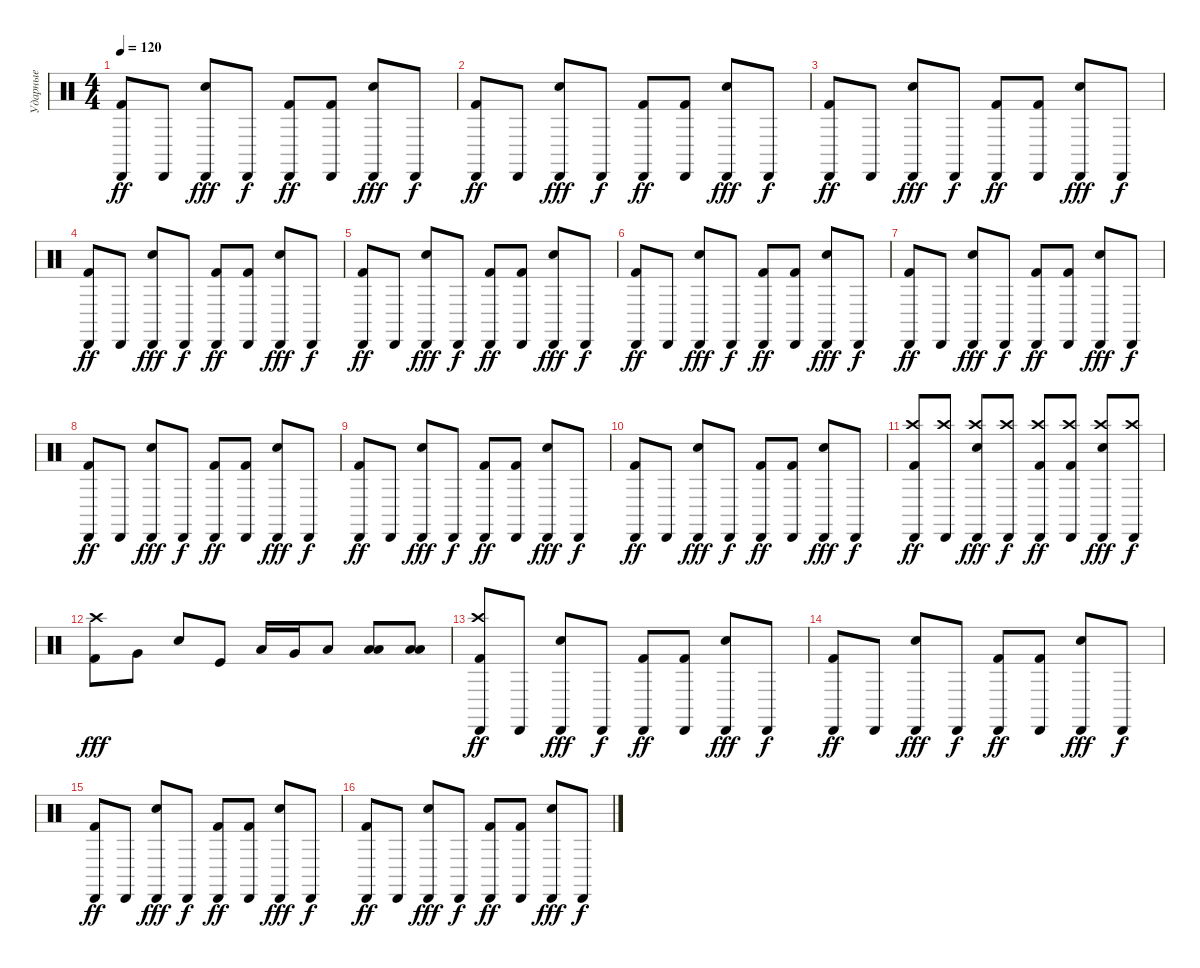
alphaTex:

\track ("Ударные" "Ударные") {instrument percussion}
\staff {score}
\articulation defaults
\ts (4 4)
\tempo 120
\clef neutral
\ks c
("Cabasa (hit)" "Kick (hit) 2").8{dy ff} "Cabasa (hit)".8 ("Snare (hit) 2" "Cabasa (hit)").8{dy fff} "Cabasa (hit)".8{dy f} ("Cabasa (hit)" "Kick (hit) 2").8{dy ff} ("Cabasa (hit)" "Kick (hit) 2").8 ("Snare (hit) 2" "Cabasa (hit)").8{dy fff} "Cabasa (hit)".8{dy f} |
("Cabasa (hit)" "Kick (hit) 2").8{dy ff} "Cabasa (hit)".8 ("Snare (hit) 2" "Cabasa (hit)").8{dy fff} "Cabasa (hit)".8{dy f} ("Cabasa (hit)" "Kick (hit) 2").8{dy ff} ("Cabasa (hit)" "Kick (hit) 2").8 ("Snare (hit) 2" "Cabasa (hit)").8{dy fff} "Cabasa (hit)".8{dy f} |
("Cabasa (hit)" "Kick (hit) 2").8{dy ff} "Cabasa (hit)".8 ("Snare (hit) 2" "Cabasa (hit)").8{dy fff} "Cabasa (hit)".8{dy f} ("Cabasa (hit)" "Kick (hit) 2").8{dy ff} ("Cabasa (hit)" "Kick (hit) 2").8 ("Snare (hit) 2" "Cabasa (hit)").8{dy fff} "Cabasa (hit)".8{dy f} |
("Cabasa (hit)" "Kick (hit) 2").8{dy ff} "Cabasa (hit)".8 ("Snare (hit) 2" "Cabasa (hit)").8{dy fff} "Cabasa (hit)".8{dy f} ("Cabasa (hit)" "Kick (hit) 2").8{dy ff} ("Cabasa (hit)" "Kick (hit) 2").8 ("Snare (hit) 2" "Cabasa (hit)").8{dy fff} "Cabasa (hit)".8{dy f} |
("Cabasa (hit)" "Kick (hit) 2").8{dy ff} "Cabasa (hit)".8 ("Snare (hit) 2" "Cabasa (hit)").8{dy fff} "Cabasa (hit)".8{dy f} ("Cabasa (hit)" "Kick (hit) 2").8{dy ff} ("Cabasa (hit)" "Kick (hit) 2").8 ("Snare (hit) 2" "Cabasa (hit)").8{dy fff} "Cabasa (hit)".8{dy f} |
("Cabasa (hit)" "Kick (hit) 2").8{dy ff} "Cabasa (hit)".8 ("Snare (hit) 2" "Cabasa (hit)").8{dy fff} "Cabasa (hit)".8{dy f} ("Cabasa (hit)" "Kick (hit) 2").8{dy ff} ("Cabasa (hit)" "Kick (hit) 2").8 ("Snare (hit) 2" "Cabasa (hit)").8{dy fff} "Cabasa (hit)".8{dy f} |
("Cabasa (hit)" "Kick (hit) 2").8{dy ff} "Cabasa (hit)".8 ("Snare (hit) 2" "Cabasa (hit)").8{dy fff} "Cabasa (hit)".8{dy f} ("Cabasa (hit)" "Kick (hit) 2").8{dy ff} ("Cabasa (hit)" "Kick (hit) 2").8 ("Snare (hit) 2" "Cabasa (hit)").8{dy fff} "Cabasa (hit)".8{dy f} |
("Cabasa (hit)" "Kick (hit) 2").8{dy ff} "Cabasa (hit)".8 ("Snare (hit) 2" "Cabasa (hit)").8{dy fff} "Cabasa (hit)".8{dy f} ("Cabasa (hit)" "Kick (hit) 2").8{dy ff} ("Cabasa (hit)" "Kick (hit) 2").8 ("Snare (hit) 2" "Cabasa (hit)").8{dy fff} "Cabasa (hit)".8{dy f} |
("Cabasa (hit)" "Kick (hit) 2").8{dy ff} "Cabasa (hit)".8 ("Snare (hit) 2" "Cabasa (hit)").8{dy fff} "Cabasa (hit)".8{dy f} ("Cabasa (hit)" "Kick (hit) 2").8{dy ff} ("Cabasa (hit)" "Kick (hit) 2").8 ("Snare (hit) 2" "Cabasa (hit)").8{dy fff} "Cabasa (hit)".8{dy f} |
("Cabasa (hit)" "Kick (hit) 2").8{dy ff} "Cabasa (hit)".8 ("Snare (hit) 2" "Cabasa (hit)").8{dy fff} "Cabasa (hit)".8{dy f} ("Cabasa (hit)" "Kick (hit) 2").8{dy ff} ("Cabasa (hit)" "Kick (hit) 2").8 ("Snare (hit) 2" "Cabasa (hit)").8{dy fff} "Cabasa (hit)".8{dy f} |
("Cabasa (hit)" "Kick (hit) 2" "Crash high (hit)").8{dy ff} ("Cabasa (hit)" "Crash high (hit)").8 ("Snare (hit) 2" "Cabasa (hit)" "Crash high (hit)").8{dy fff} ("Cabasa (hit)" "Crash high (hit)").8{dy f} ("Cabasa (hit)" "Kick (hit) 2" "Crash high (hit)").8{dy ff} ("Cabasa (hit)" "Kick (hit) 2" "Crash high (hit)").8 ("Snare (hit) 2" "Cabasa (hit)" "Crash high (hit)").8{dy fff} ("Cabasa (hit)" "Crash high (hit)").8{dy f} |
("Crash high (hit)" "Kick (hit) 2").8{dy fff} "Very Low Tom (hit)".8 "Electric Snare (hit)".8 "Kick (hit)".8 "Low Tom (hit)".16 "Very Low Tom (hit)".16 "Low Tom (hit)".8 ("Low Floor Tom (hit)" "Low Tom (hit)").8 ("Low Floor Tom (hit)" "Low Tom (hit)").8 |
("Cabasa (hit)" "Kick (hit) 2" "Crash high (hit)").8{dy ff} "Cabasa (hit)".8 ("Snare (hit) 2" "Cabasa (hit)").8{dy fff} "Cabasa (hit)".8{dy f} ("Cabasa (hit)" "Kick (hit) 2").8{dy ff} ("Cabasa (hit)" "Kick (hit) 2").8 ("Snare (hit) 2" "Cabasa (hit)").8{dy fff} "Cabasa (hit)".8{dy f} |
("Cabasa (hit)" "Kick (hit) 2").8{dy ff} "Cabasa (hit)".8 ("Snare (hit) 2" "Cabasa (hit)").8{dy fff} "Cabasa (hit)".8{dy f} ("Cabasa (hit)" "Kick (hit) 2").8{dy ff} ("Cabasa (hit)" "Kick (hit) 2").8 ("Snare (hit) 2" "Cabasa (hit)").8{dy fff} "Cabasa (hit)".8{dy f} |
("Cabasa (hit)" "Kick (hit) 2").8{dy ff} "Cabasa (hit)".8 ("Snare (hit) 2" "Cabasa (hit)").8{dy fff} "Cabasa (hit)".8{dy f} ("Cabasa (hit)" "Kick (hit) 2").8{dy ff} ("Cabasa (hit)" "Kick (hit) 2").8 ("Snare (hit) 2" "Cabasa (hit)").8{dy fff} "Cabasa (hit)".8{dy f} |
("Cabasa (hit)" "Kick (hit) 2").8{dy ff} "Cabasa (hit)".8 ("Snare (hit) 2" "Cabasa (hit)").8{dy fff} "Cabasa (hit)".8{dy f} ("Cabasa (hit)" "Kick (hit) 2").8{dy ff} ("Cabasa (hit)" "Kick (hit) 2").8 ("Snare (hit) 2" "Cabasa (hit)").8{dy fff} "Cabasa (hit)".8{dy f}
